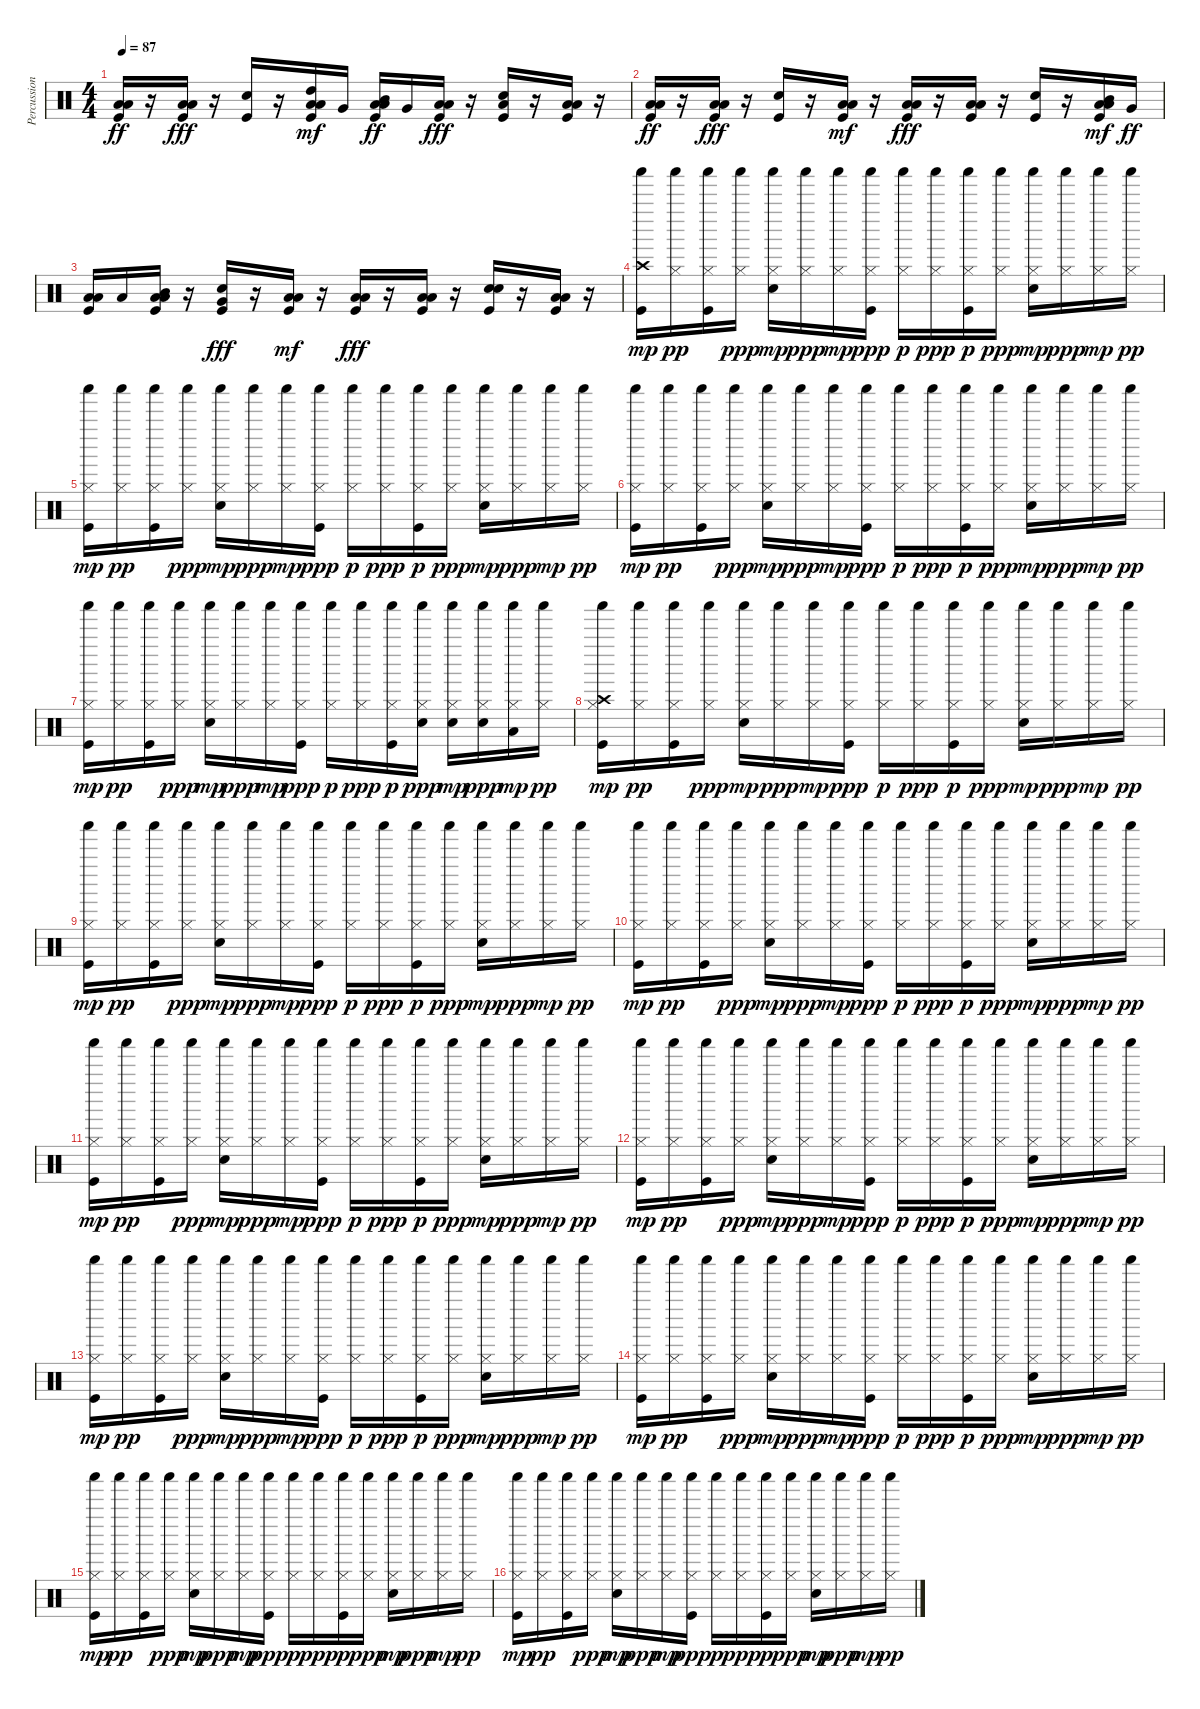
\track ("Percussioni" "Percussion") {instrument percussion}
\staff {score}
\articulation defaults
\ts (4 4)
\tempo 87
\clef neutral
\ks c
("Kick (hit)" "Low Floor Tom (hit)" "Low Tom (hit)").16{dy ff} r.16 ("Kick (hit)" "Low Floor Tom (hit)" "Low Tom (hit)").16{dy fff} r.16 ("Kick (hit)" "Electric Snare (hit)").16 r.16 ("Kick (hit)" "Low Floor Tom (hit)" "Low Tom (hit)" "High Tom (hit)").16{dy mf} "Very Low Tom (hit)".16 ("Kick (hit)" "Low Floor Tom (hit)" "Low Tom (hit)" "Mid Tom (hit)").16{dy ff} "Very Low Tom (hit)".16 ("Kick (hit)" "Low Floor Tom (hit)" "Low Tom (hit)").16{dy fff} r.16 ("Kick (hit)" "Electric Snare (hit)" "Low Floor Tom (hit)").16 r.16 ("Kick (hit)" "Low Floor Tom (hit)" "Low Tom (hit)").16 r.16 |
("Kick (hit)" "Low Floor Tom (hit)" "Low Tom (hit)").16{dy ff} r.16 ("Kick (hit)" "Low Floor Tom (hit)" "Low Tom (hit)").16{dy fff} r.16 ("Kick (hit)" "Electric Snare (hit)").16 r.16 ("Kick (hit)" "Low Floor Tom (hit)" "Low Tom (hit)").16{dy mf} r.16 ("Kick (hit)" "Low Floor Tom (hit)" "Low Tom (hit)").16{dy fff} r.16 ("Kick (hit)" "Low Floor Tom (hit)" "Low Tom (hit)").16 r.16 ("Kick (hit)" "Electric Snare (hit)").16 r.16 ("Kick (hit)" "Low Floor Tom (hit)" "Low Tom (hit)" "Mid Tom (hit)").16{dy mf} "Very Low Tom (hit)".16{dy ff} |
("Kick (hit)" "Low Floor Tom (hit)" "Low Tom (hit)").16 "Low Floor Tom (hit)".16 ("Kick (hit)" "Low Floor Tom (hit)" "Low Tom (hit)" "Mid Tom (hit)").16 r.16 ("Kick (hit)" "Electric Snare (hit)" "Very Low Tom (hit)").16{dy fff} r.16 ("Kick (hit)" "Low Floor Tom (hit)" "Low Tom (hit)").16{dy mf} r.16 ("Kick (hit)" "Low Floor Tom (hit)" "Low Tom (hit)").16{dy fff} r.16 ("Kick (hit)" "Low Floor Tom (hit)" "Low Tom (hit)").16 r.16 ("Kick (hit)" "Electric Snare (hit)" "Electric Snare (hit)").16 r.16 ("Kick (hit)" "Low Floor Tom (hit)" "Low Tom (hit)").16 r.16 |
("Kick (hit)" "Crash high (hit)" "Shaker (hit)").16{dy mp} ("Hi-Hat (closed)" "Shaker (hit)").16{dy pp} ("Kick (hit)" "Hi-Hat (closed)" "Shaker (hit)").16 ("Hi-Hat (closed)" "Shaker (hit)").16{dy ppp} ("Electric Snare (hit)" "Hi-Hat (closed)" "Shaker (hit)").16{dy mp} ("Hi-Hat (closed)" "Shaker (hit)").16{dy ppp} ("Hi-Hat (closed)" "Shaker (hit)").16{dy mp} ("Kick (hit)" "Hi-Hat (closed)" "Shaker (hit)").16{dy ppp} ("Hi-Hat (closed)" "Shaker (hit)").16{dy p} ("Hi-Hat (closed)" "Shaker (hit)").16{dy ppp} ("Kick (hit)" "Hi-Hat (closed)" "Shaker (hit)").16{dy p} ("Hi-Hat (closed)" "Shaker (hit)").16{dy ppp} ("Electric Snare (hit)" "Hi-Hat (closed)" "Shaker (hit)").16{dy mp} ("Hi-Hat (closed)" "Shaker (hit)").16{dy ppp} ("Hi-Hat (closed)" "Shaker (hit)").16{dy mp} ("Hi-Hat (closed)" "Shaker (hit)").16{dy pp} |
("Kick (hit)" "Hi-Hat (closed)" "Shaker (hit)").16{dy mp} ("Hi-Hat (closed)" "Shaker (hit)").16{dy pp} ("Kick (hit)" "Hi-Hat (closed)" "Shaker (hit)").16 ("Hi-Hat (closed)" "Shaker (hit)").16{dy ppp} ("Electric Snare (hit)" "Hi-Hat (closed)" "Shaker (hit)").16{dy mp} ("Hi-Hat (closed)" "Shaker (hit)").16{dy ppp} ("Hi-Hat (closed)" "Shaker (hit)").16{dy mp} ("Kick (hit)" "Hi-Hat (closed)" "Shaker (hit)").16{dy ppp} ("Hi-Hat (closed)" "Shaker (hit)").16{dy p} ("Hi-Hat (closed)" "Shaker (hit)").16{dy ppp} ("Kick (hit)" "Hi-Hat (closed)" "Shaker (hit)").16{dy p} ("Hi-Hat (closed)" "Shaker (hit)").16{dy ppp} ("Electric Snare (hit)" "Hi-Hat (closed)" "Shaker (hit)").16{dy mp} ("Hi-Hat (closed)" "Shaker (hit)").16{dy ppp} ("Hi-Hat (closed)" "Shaker (hit)").16{dy mp} ("Hi-Hat (closed)" "Shaker (hit)").16{dy pp} |
("Kick (hit)" "Hi-Hat (closed)" "Shaker (hit)").16{dy mp} ("Hi-Hat (closed)" "Shaker (hit)").16{dy pp} ("Kick (hit)" "Hi-Hat (closed)" "Shaker (hit)").16 ("Hi-Hat (closed)" "Shaker (hit)").16{dy ppp} ("Electric Snare (hit)" "Hi-Hat (closed)" "Shaker (hit)").16{dy mp} ("Hi-Hat (closed)" "Shaker (hit)").16{dy ppp} ("Hi-Hat (closed)" "Shaker (hit)").16{dy mp} ("Kick (hit)" "Hi-Hat (closed)" "Shaker (hit)").16{dy ppp} ("Hi-Hat (closed)" "Shaker (hit)").16{dy p} ("Hi-Hat (closed)" "Shaker (hit)").16{dy ppp} ("Kick (hit)" "Hi-Hat (closed)" "Shaker (hit)").16{dy p} ("Hi-Hat (closed)" "Shaker (hit)").16{dy ppp} ("Electric Snare (hit)" "Hi-Hat (closed)" "Shaker (hit)").16{dy mp} ("Hi-Hat (closed)" "Shaker (hit)").16{dy ppp} ("Hi-Hat (closed)" "Shaker (hit)").16{dy mp} ("Hi-Hat (closed)" "Shaker (hit)").16{dy pp} |
("Kick (hit)" "Hi-Hat (closed)" "Shaker (hit)").16{dy mp} ("Hi-Hat (closed)" "Shaker (hit)").16{dy pp} ("Kick (hit)" "Hi-Hat (closed)" "Shaker (hit)").16 ("Hi-Hat (closed)" "Shaker (hit)").16{dy ppp} ("Electric Snare (hit)" "Hi-Hat (closed)" "Shaker (hit)").16{dy mp} ("Hi-Hat (closed)" "Shaker (hit)").16{dy ppp} ("Hi-Hat (closed)" "Shaker (hit)").16{dy mp} ("Kick (hit)" "Hi-Hat (closed)" "Shaker (hit)").16{dy ppp} ("Hi-Hat (closed)" "Shaker (hit)").16{dy p} ("Hi-Hat (closed)" "Shaker (hit)").16{dy ppp} ("Kick (hit)" "Hi-Hat (closed)" "Shaker (hit)").16{dy p} ("Electric Snare (hit)" "Hi-Hat (closed)" "Shaker (hit)").16{dy ppp} ("Electric Snare (hit)" "Hi-Hat (closed)" "Shaker (hit)").16{dy mp} ("Electric Snare (hit)" "Hi-Hat (closed)" "Shaker (hit)").16{dy ppp} ("Hi-Hat (closed)" "Low Tom (hit)" "Shaker (hit)").16{dy mp} ("Hi-Hat (closed)" "Shaker (hit)").16{dy pp} |
("Kick (hit)" "Hi-Hat (closed)" "Crash high (hit)" "Shaker (hit)").16{dy mp} ("Hi-Hat (closed)" "Shaker (hit)").16{dy pp} ("Kick (hit)" "Hi-Hat (closed)" "Shaker (hit)").16 ("Hi-Hat (closed)" "Shaker (hit)").16{dy ppp} ("Electric Snare (hit)" "Hi-Hat (closed)" "Shaker (hit)").16{dy mp} ("Hi-Hat (closed)" "Shaker (hit)").16{dy ppp} ("Hi-Hat (closed)" "Shaker (hit)").16{dy mp} ("Kick (hit)" "Hi-Hat (closed)" "Shaker (hit)").16{dy ppp} ("Hi-Hat (closed)" "Shaker (hit)").16{dy p} ("Hi-Hat (closed)" "Shaker (hit)").16{dy ppp} ("Kick (hit)" "Hi-Hat (closed)" "Shaker (hit)").16{dy p} ("Hi-Hat (closed)" "Shaker (hit)").16{dy ppp} ("Electric Snare (hit)" "Hi-Hat (closed)" "Shaker (hit)").16{dy mp} ("Hi-Hat (closed)" "Shaker (hit)").16{dy ppp} ("Hi-Hat (closed)" "Shaker (hit)").16{dy mp} ("Hi-Hat (closed)" "Shaker (hit)").16{dy pp} |
("Kick (hit)" "Hi-Hat (closed)" "Shaker (hit)").16{dy mp} ("Hi-Hat (closed)" "Shaker (hit)").16{dy pp} ("Kick (hit)" "Hi-Hat (closed)" "Shaker (hit)").16 ("Hi-Hat (closed)" "Shaker (hit)").16{dy ppp} ("Electric Snare (hit)" "Hi-Hat (closed)" "Shaker (hit)").16{dy mp} ("Hi-Hat (closed)" "Shaker (hit)").16{dy ppp} ("Hi-Hat (closed)" "Shaker (hit)").16{dy mp} ("Kick (hit)" "Hi-Hat (closed)" "Shaker (hit)").16{dy ppp} ("Hi-Hat (closed)" "Shaker (hit)").16{dy p} ("Hi-Hat (closed)" "Shaker (hit)").16{dy ppp} ("Kick (hit)" "Hi-Hat (closed)" "Shaker (hit)").16{dy p} ("Hi-Hat (closed)" "Shaker (hit)").16{dy ppp} ("Electric Snare (hit)" "Hi-Hat (closed)" "Shaker (hit)").16{dy mp} ("Hi-Hat (closed)" "Shaker (hit)").16{dy ppp} ("Hi-Hat (closed)" "Shaker (hit)").16{dy mp} ("Hi-Hat (closed)" "Shaker (hit)").16{dy pp} |
("Kick (hit)" "Hi-Hat (closed)" "Shaker (hit)").16{dy mp} ("Hi-Hat (closed)" "Shaker (hit)").16{dy pp} ("Kick (hit)" "Hi-Hat (closed)" "Shaker (hit)").16 ("Hi-Hat (closed)" "Shaker (hit)").16{dy ppp} ("Electric Snare (hit)" "Hi-Hat (closed)" "Shaker (hit)").16{dy mp} ("Hi-Hat (closed)" "Shaker (hit)").16{dy ppp} ("Hi-Hat (closed)" "Shaker (hit)").16{dy mp} ("Kick (hit)" "Hi-Hat (closed)" "Shaker (hit)").16{dy ppp} ("Hi-Hat (closed)" "Shaker (hit)").16{dy p} ("Hi-Hat (closed)" "Shaker (hit)").16{dy ppp} ("Kick (hit)" "Hi-Hat (closed)" "Shaker (hit)").16{dy p} ("Hi-Hat (closed)" "Shaker (hit)").16{dy ppp} ("Electric Snare (hit)" "Hi-Hat (closed)" "Shaker (hit)").16{dy mp} ("Hi-Hat (closed)" "Shaker (hit)").16{dy ppp} ("Hi-Hat (closed)" "Shaker (hit)").16{dy mp} ("Hi-Hat (closed)" "Shaker (hit)").16{dy pp} |
("Kick (hit)" "Hi-Hat (closed)" "Shaker (hit)").16{dy mp} ("Hi-Hat (closed)" "Shaker (hit)").16{dy pp} ("Kick (hit)" "Hi-Hat (closed)" "Shaker (hit)").16 ("Hi-Hat (closed)" "Shaker (hit)").16{dy ppp} ("Electric Snare (hit)" "Hi-Hat (closed)" "Shaker (hit)").16{dy mp} ("Hi-Hat (closed)" "Shaker (hit)").16{dy ppp} ("Hi-Hat (closed)" "Shaker (hit)").16{dy mp} ("Kick (hit)" "Hi-Hat (closed)" "Shaker (hit)").16{dy ppp} ("Hi-Hat (closed)" "Shaker (hit)").16{dy p} ("Hi-Hat (closed)" "Shaker (hit)").16{dy ppp} ("Kick (hit)" "Hi-Hat (closed)" "Shaker (hit)").16{dy p} ("Hi-Hat (closed)" "Shaker (hit)").16{dy ppp} ("Electric Snare (hit)" "Hi-Hat (closed)" "Shaker (hit)").16{dy mp} ("Hi-Hat (closed)" "Shaker (hit)").16{dy ppp} ("Hi-Hat (closed)" "Shaker (hit)").16{dy mp} ("Hi-Hat (closed)" "Shaker (hit)").16{dy pp} |
("Kick (hit)" "Hi-Hat (closed)" "Shaker (hit)").16{dy mp} ("Hi-Hat (closed)" "Shaker (hit)").16{dy pp} ("Kick (hit)" "Hi-Hat (closed)" "Shaker (hit)").16 ("Hi-Hat (closed)" "Shaker (hit)").16{dy ppp} ("Electric Snare (hit)" "Hi-Hat (closed)" "Shaker (hit)").16{dy mp} ("Hi-Hat (closed)" "Shaker (hit)").16{dy ppp} ("Hi-Hat (closed)" "Shaker (hit)").16{dy mp} ("Kick (hit)" "Hi-Hat (closed)" "Shaker (hit)").16{dy ppp} ("Hi-Hat (closed)" "Shaker (hit)").16{dy p} ("Hi-Hat (closed)" "Shaker (hit)").16{dy ppp} ("Kick (hit)" "Hi-Hat (closed)" "Shaker (hit)").16{dy p} ("Hi-Hat (closed)" "Shaker (hit)").16{dy ppp} ("Electric Snare (hit)" "Hi-Hat (closed)" "Shaker (hit)").16{dy mp} ("Hi-Hat (closed)" "Shaker (hit)").16{dy ppp} ("Hi-Hat (closed)" "Shaker (hit)").16{dy mp} ("Hi-Hat (closed)" "Shaker (hit)").16{dy pp} |
("Kick (hit)" "Hi-Hat (closed)" "Shaker (hit)").16{dy mp} ("Hi-Hat (closed)" "Shaker (hit)").16{dy pp} ("Kick (hit)" "Hi-Hat (closed)" "Shaker (hit)").16 ("Hi-Hat (closed)" "Shaker (hit)").16{dy ppp} ("Electric Snare (hit)" "Hi-Hat (closed)" "Shaker (hit)").16{dy mp} ("Hi-Hat (closed)" "Shaker (hit)").16{dy ppp} ("Hi-Hat (closed)" "Shaker (hit)").16{dy mp} ("Kick (hit)" "Hi-Hat (closed)" "Shaker (hit)").16{dy ppp} ("Hi-Hat (closed)" "Shaker (hit)").16{dy p} ("Hi-Hat (closed)" "Shaker (hit)").16{dy ppp} ("Kick (hit)" "Hi-Hat (closed)" "Shaker (hit)").16{dy p} ("Hi-Hat (closed)" "Shaker (hit)").16{dy ppp} ("Electric Snare (hit)" "Hi-Hat (closed)" "Shaker (hit)").16{dy mp} ("Hi-Hat (closed)" "Shaker (hit)").16{dy ppp} ("Hi-Hat (closed)" "Shaker (hit)").16{dy mp} ("Hi-Hat (closed)" "Shaker (hit)").16{dy pp} |
("Kick (hit)" "Hi-Hat (closed)" "Shaker (hit)").16{dy mp} ("Hi-Hat (closed)" "Shaker (hit)").16{dy pp} ("Kick (hit)" "Hi-Hat (closed)" "Shaker (hit)").16 ("Hi-Hat (closed)" "Shaker (hit)").16{dy ppp} ("Electric Snare (hit)" "Hi-Hat (closed)" "Shaker (hit)").16{dy mp} ("Hi-Hat (closed)" "Shaker (hit)").16{dy ppp} ("Hi-Hat (closed)" "Shaker (hit)").16{dy mp} ("Kick (hit)" "Hi-Hat (closed)" "Shaker (hit)").16{dy ppp} ("Hi-Hat (closed)" "Shaker (hit)").16{dy p} ("Hi-Hat (closed)" "Shaker (hit)").16{dy ppp} ("Kick (hit)" "Hi-Hat (closed)" "Shaker (hit)").16{dy p} ("Hi-Hat (closed)" "Shaker (hit)").16{dy ppp} ("Electric Snare (hit)" "Hi-Hat (closed)" "Shaker (hit)").16{dy mp} ("Hi-Hat (closed)" "Shaker (hit)").16{dy ppp} ("Hi-Hat (closed)" "Shaker (hit)").16{dy mp} ("Hi-Hat (closed)" "Shaker (hit)").16{dy pp} |
("Kick (hit)" "Hi-Hat (closed)" "Shaker (hit)").16{dy mp} ("Hi-Hat (closed)" "Shaker (hit)").16{dy pp} ("Kick (hit)" "Hi-Hat (closed)" "Shaker (hit)").16 ("Hi-Hat (closed)" "Shaker (hit)").16{dy ppp} ("Electric Snare (hit)" "Hi-Hat (closed)" "Shaker (hit)").16{dy mp} ("Hi-Hat (closed)" "Shaker (hit)").16{dy ppp} ("Hi-Hat (closed)" "Shaker (hit)").16{dy mp} ("Kick (hit)" "Hi-Hat (closed)" "Shaker (hit)").16{dy ppp} ("Hi-Hat (closed)" "Shaker (hit)").16{dy p} ("Hi-Hat (closed)" "Shaker (hit)").16{dy ppp} ("Kick (hit)" "Hi-Hat (closed)" "Shaker (hit)").16{dy p} ("Hi-Hat (closed)" "Shaker (hit)").16{dy ppp} ("Electric Snare (hit)" "Hi-Hat (closed)" "Shaker (hit)").16{dy mp} ("Hi-Hat (closed)" "Shaker (hit)").16{dy ppp} ("Hi-Hat (closed)" "Shaker (hit)").16{dy mp} ("Hi-Hat (closed)" "Shaker (hit)").16{dy pp} |
("Kick (hit)" "Hi-Hat (closed)" "Shaker (hit)").16{dy mp} ("Hi-Hat (closed)" "Shaker (hit)").16{dy pp} ("Kick (hit)" "Hi-Hat (closed)" "Shaker (hit)").16 ("Hi-Hat (closed)" "Shaker (hit)").16{dy ppp} ("Electric Snare (hit)" "Hi-Hat (closed)" "Shaker (hit)").16{dy mp} ("Hi-Hat (closed)" "Shaker (hit)").16{dy ppp} ("Hi-Hat (closed)" "Shaker (hit)").16{dy mp} ("Kick (hit)" "Hi-Hat (closed)" "Shaker (hit)").16{dy ppp} ("Hi-Hat (closed)" "Shaker (hit)").16{dy p} ("Hi-Hat (closed)" "Shaker (hit)").16{dy ppp} ("Kick (hit)" "Hi-Hat (closed)" "Shaker (hit)").16{dy p} ("Hi-Hat (closed)" "Shaker (hit)").16{dy ppp} ("Electric Snare (hit)" "Hi-Hat (closed)" "Shaker (hit)").16{dy mp} ("Hi-Hat (closed)" "Shaker (hit)").16{dy ppp} ("Hi-Hat (closed)" "Shaker (hit)").16{dy mp} ("Hi-Hat (closed)" "Shaker (hit)").16{dy pp}
